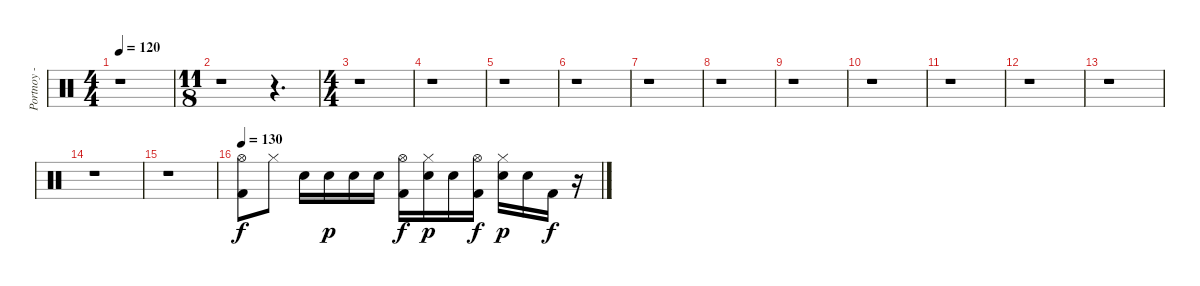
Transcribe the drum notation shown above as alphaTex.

\track ("Portnoy - Drums" "Portnoy - ") {instrument percussion}
\staff {score}
\articulation defaults
\ts (4 4)
\tempo 120
\clef neutral
\ks c
r.1{dy p} |
\ts (11 8)
r.1 r.4{d} |
\ts (4 4)
r.1 |
r.1 |
r.1 |
r.1 |
r.1 |
r.1 |
r.1 |
r.1 |
r.1 |
r.1 |
r.1 |
r.1 |
r.1 |
\tempo 130
("Kick (hit) 2" "Hi-Hat (open)").8{dy f} "Hi-Hat (closed)".8 "Electric Snare (hit)".16 "Electric Snare (hit)".16{dy p} "Electric Snare (hit)".16 "Electric Snare (hit)".16 ("Kick (hit) 2" "Hi-Hat (open)").16{dy f} ("Hi-Hat (closed)" "Electric Snare (hit)").16{dy p} "Electric Snare (hit)".16 ("Kick (hit) 2" "Hi-Hat (open)").16{dy f} ("Hi-Hat (closed)" "Electric Snare (hit)").16{dy p} "Electric Snare (hit)".16 "Kick (hit) 2".16{dy f} r.16
